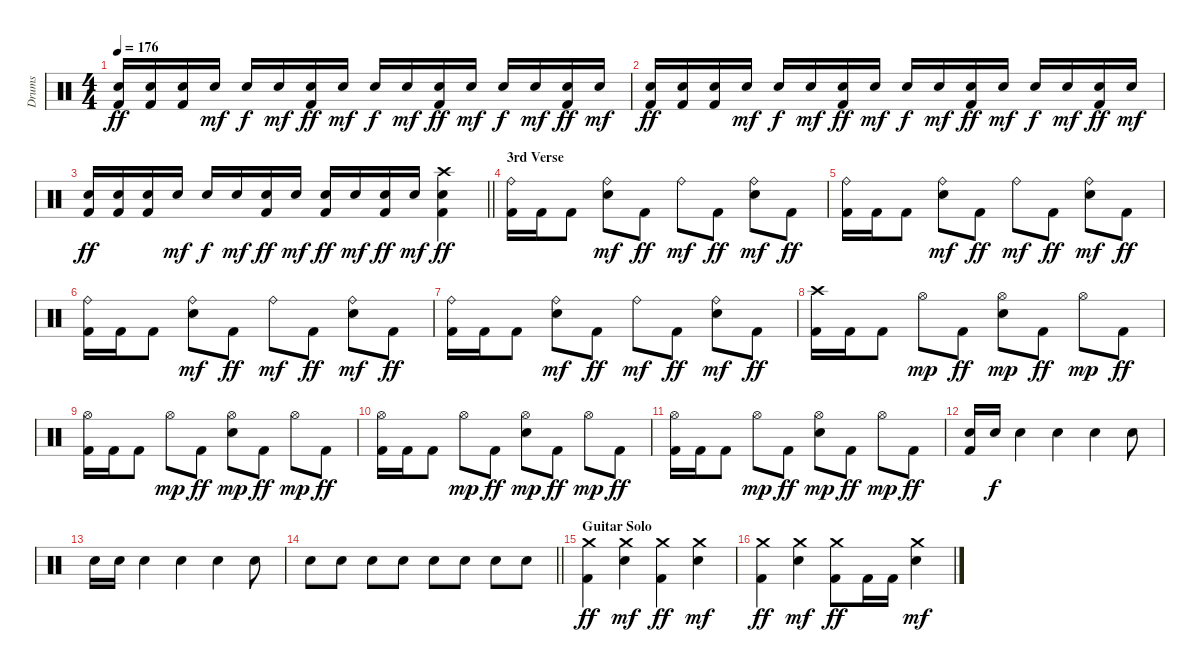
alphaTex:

\track ("Drums" "Drums") {instrument percussion}
\staff {score}
\articulation defaults
\ts (4 4)
\tempo 176
\clef neutral
\ks c
("Electric Snare (hit)" "Kick (hit) 2").16{dy ff} ("Electric Snare (hit)" "Kick (hit) 2").16 ("Electric Snare (hit)" "Kick (hit) 2").16 "Electric Snare (hit)".16{dy mf} "Electric Snare (hit)".16{dy f} "Electric Snare (hit)".16{dy mf} ("Electric Snare (hit)" "Kick (hit) 2").16{dy ff} "Electric Snare (hit)".16{dy mf} "Electric Snare (hit)".16{dy f} "Electric Snare (hit)".16{dy mf} ("Electric Snare (hit)" "Kick (hit) 2").16{dy ff} "Electric Snare (hit)".16{dy mf} "Electric Snare (hit)".16{dy f} "Electric Snare (hit)".16{dy mf} ("Electric Snare (hit)" "Kick (hit) 2").16{dy ff} "Electric Snare (hit)".16{dy mf} |
("Electric Snare (hit)" "Kick (hit) 2").16{dy ff} ("Electric Snare (hit)" "Kick (hit) 2").16 ("Electric Snare (hit)" "Kick (hit) 2").16 "Electric Snare (hit)".16{dy mf} "Electric Snare (hit)".16{dy f} "Electric Snare (hit)".16{dy mf} ("Electric Snare (hit)" "Kick (hit) 2").16{dy ff} "Electric Snare (hit)".16{dy mf} "Electric Snare (hit)".16{dy f} "Electric Snare (hit)".16{dy mf} ("Electric Snare (hit)" "Kick (hit) 2").16{dy ff} "Electric Snare (hit)".16{dy mf} "Electric Snare (hit)".16{dy f} "Electric Snare (hit)".16{dy mf} ("Electric Snare (hit)" "Kick (hit) 2").16{dy ff} "Electric Snare (hit)".16{dy mf} |
\barLineRight lightlight
("Electric Snare (hit)" "Kick (hit) 2").16{dy ff} ("Electric Snare (hit)" "Kick (hit) 2").16 ("Electric Snare (hit)" "Kick (hit) 2").16 "Electric Snare (hit)".16{dy mf} "Electric Snare (hit)".16{dy f} "Electric Snare (hit)".16{dy mf} ("Electric Snare (hit)" "Kick (hit) 2").16{dy ff} "Electric Snare (hit)".16{dy mf} ("Electric Snare (hit)" "Kick (hit) 2").16{dy ff} "Electric Snare (hit)".16{dy mf} ("Electric Snare (hit)" "Kick (hit) 2").16{dy ff} "Electric Snare (hit)".16{dy mf} ("Crash high (hit)" "Electric Snare (hit)" "Kick (hit) 2").4{dy ff} |
\section ("" "3rd Verse")
("Ride (bell)" "Kick (hit) 2").16 "Kick (hit) 2".16 "Kick (hit) 2".8 ("Ride (bell)" "Electric Snare (hit)").8{dy mf} "Kick (hit) 2".8{dy ff} "Ride (bell)".8{dy mf} "Kick (hit) 2".8{dy ff} ("Ride (bell)" "Electric Snare (hit)").8{dy mf} "Kick (hit) 2".8{dy ff} |
("Ride (bell)" "Kick (hit) 2").16 "Kick (hit) 2".16 "Kick (hit) 2".8 ("Ride (bell)" "Electric Snare (hit)").8{dy mf} "Kick (hit) 2".8{dy ff} "Ride (bell)".8{dy mf} "Kick (hit) 2".8{dy ff} ("Ride (bell)" "Electric Snare (hit)").8{dy mf} "Kick (hit) 2".8{dy ff} |
("Ride (bell)" "Kick (hit) 2").16 "Kick (hit) 2".16 "Kick (hit) 2".8 ("Ride (bell)" "Electric Snare (hit)").8{dy mf} "Kick (hit) 2".8{dy ff} "Ride (bell)".8{dy mf} "Kick (hit) 2".8{dy ff} ("Ride (bell)" "Electric Snare (hit)").8{dy mf} "Kick (hit) 2".8{dy ff} |
("Ride (bell)" "Kick (hit) 2").16 "Kick (hit) 2".16 "Kick (hit) 2".8 ("Ride (bell)" "Electric Snare (hit)").8{dy mf} "Kick (hit) 2".8{dy ff} "Ride (bell)".8{dy mf} "Kick (hit) 2".8{dy ff} ("Ride (bell)" "Electric Snare (hit)").8{dy mf} "Kick (hit) 2".8{dy ff} |
("Crash high (hit)" "Kick (hit) 2").16 "Kick (hit) 2".16 "Kick (hit) 2".8 "Hi-Hat (open)".8{dy mp} "Kick (hit) 2".8{dy ff} ("Hi-Hat (open)" "Electric Snare (hit)").8{dy mp} "Kick (hit) 2".8{dy ff} "Hi-Hat (open)".8{dy mp} "Kick (hit) 2".8{dy ff} |
("Hi-Hat (open)" "Kick (hit) 2").16 "Kick (hit) 2".16 "Kick (hit) 2".8 "Hi-Hat (open)".8{dy mp} "Kick (hit) 2".8{dy ff} ("Hi-Hat (open)" "Electric Snare (hit)").8{dy mp} "Kick (hit) 2".8{dy ff} "Hi-Hat (open)".8{dy mp} "Kick (hit) 2".8{dy ff} |
("Hi-Hat (open)" "Kick (hit) 2").16 "Kick (hit) 2".16 "Kick (hit) 2".8 "Hi-Hat (open)".8{dy mp} "Kick (hit) 2".8{dy ff} ("Hi-Hat (open)" "Electric Snare (hit)").8{dy mp} "Kick (hit) 2".8{dy ff} "Hi-Hat (open)".8{dy mp} "Kick (hit) 2".8{dy ff} |
("Hi-Hat (open)" "Kick (hit) 2").16 "Kick (hit) 2".16 "Kick (hit) 2".8 "Hi-Hat (open)".8{dy mp} "Kick (hit) 2".8{dy ff} ("Hi-Hat (open)" "Electric Snare (hit)").8{dy mp} "Kick (hit) 2".8{dy ff} "Hi-Hat (open)".8{dy mp} "Kick (hit) 2".8{dy ff} |
("Electric Snare (hit)" "Kick (hit) 2").16 "Electric Snare (hit)".16{dy f} "Electric Snare (hit)".4 "Electric Snare (hit)".4 "Electric Snare (hit)".4 "Electric Snare (hit)".8 |
"Electric Snare (hit)".16 "Electric Snare (hit)".16 "Electric Snare (hit)".4 "Electric Snare (hit)".4 "Electric Snare (hit)".4 "Electric Snare (hit)".8 |
\barLineRight lightlight "Electric Snare (hit)".8 "Electric Snare (hit)".8 "Electric Snare (hit)".8 "Electric Snare (hit)".8 "Electric Snare (hit)".8 "Electric Snare (hit)".8 "Electric Snare (hit)".8 "Electric Snare (hit)".8
|
\section ("" "Guitar Solo")
("Crash medium (hit)" "Kick (hit) 2").4{dy ff} ("Crash medium (hit)" "Electric Snare (hit)").4{dy mf} ("Crash medium (hit)" "Kick (hit) 2").4{dy ff} ("Crash medium (hit)" "Electric Snare (hit)").4{dy mf} |
("Crash medium (hit)" "Kick (hit) 2").4{dy ff} ("Crash medium (hit)" "Electric Snare (hit)").4{dy mf} ("Crash medium (hit)" "Kick (hit) 2").8{dy ff} "Kick (hit) 2".16 "Kick (hit) 2".16 ("Crash medium (hit)" "Electric Snare (hit)").4{dy mf}
